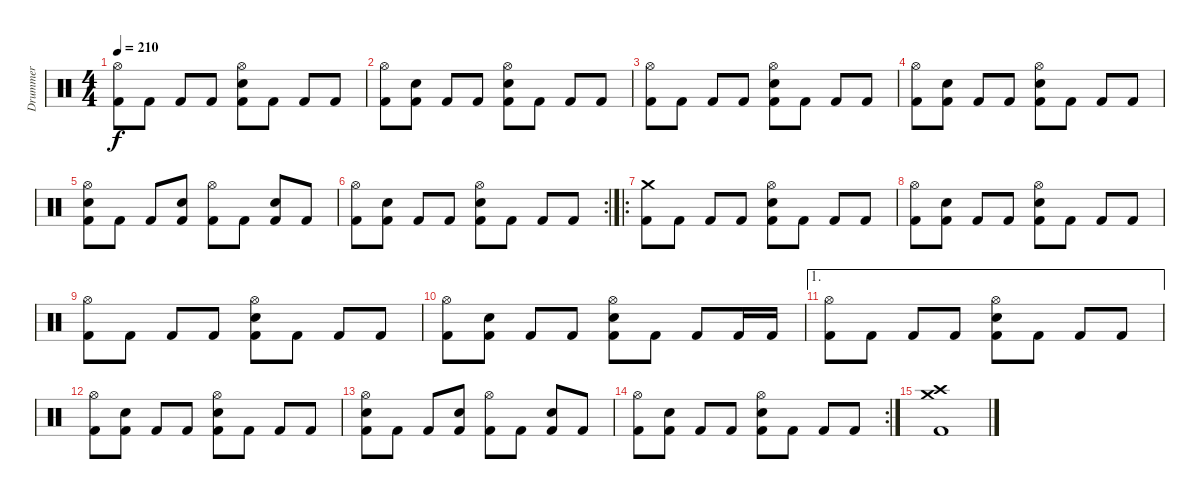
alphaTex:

\track ("Drummer" "Drummer") {instrument percussion}
\staff {score}
\articulation defaults
\ts (4 4)
\tempo 210
\clef neutral
\ks c
("Hi-Hat (open)" "Kick (hit) 2").8{dy f} "Kick (hit) 2".8 "Kick (hit) 2".8 "Kick (hit) 2".8 ("Hi-Hat (open)" "Electric Snare (hit)" "Kick (hit) 2").8 "Kick (hit) 2".8 "Kick (hit) 2".8 "Kick (hit) 2".8 |
("Hi-Hat (open)" "Kick (hit) 2").8 ("Electric Snare (hit)" "Kick (hit) 2").8 "Kick (hit) 2".8 "Kick (hit) 2".8 ("Hi-Hat (open)" "Electric Snare (hit)" "Kick (hit) 2").8 "Kick (hit) 2".8 "Kick (hit) 2".8 "Kick (hit) 2".8 |
("Hi-Hat (open)" "Kick (hit) 2").8 "Kick (hit) 2".8 "Kick (hit) 2".8 "Kick (hit) 2".8 ("Hi-Hat (open)" "Electric Snare (hit)" "Kick (hit) 2").8 "Kick (hit) 2".8 "Kick (hit) 2".8 "Kick (hit) 2".8 |
("Hi-Hat (open)" "Kick (hit) 2").8 ("Electric Snare (hit)" "Kick (hit) 2").8 "Kick (hit) 2".8 "Kick (hit) 2".8 ("Hi-Hat (open)" "Electric Snare (hit)" "Kick (hit) 2").8 "Kick (hit) 2".8 "Kick (hit) 2".8 "Kick (hit) 2".8 |
("Electric Snare (hit)" "Hi-Hat (open)" "Kick (hit) 2").8 "Kick (hit) 2".8 "Kick (hit) 2".8 ("Electric Snare (hit)" "Kick (hit) 2").8 ("Hi-Hat (open)" "Kick (hit) 2").8 "Kick (hit) 2".8 ("Electric Snare (hit)" "Kick (hit) 2").8 "Kick (hit) 2".8 |
\rc 2
("Hi-Hat (open)" "Kick (hit) 2").8 ("Electric Snare (hit)" "Kick (hit) 2").8 "Kick (hit) 2".8 "Kick (hit) 2".8 ("Hi-Hat (open)" "Electric Snare (hit)" "Kick (hit) 2").8 "Kick (hit) 2".8 "Kick (hit) 2".8 "Kick (hit) 2".8 |
\ro
("Crash medium (hit)" "Kick (hit) 2").8 "Kick (hit) 2".8 "Kick (hit) 2".8 "Kick (hit) 2".8 ("Hi-Hat (open)" "Electric Snare (hit)" "Kick (hit) 2").8 "Kick (hit) 2".8 "Kick (hit) 2".8 "Kick (hit) 2".8 |
("Hi-Hat (open)" "Kick (hit) 2").8 ("Electric Snare (hit)" "Kick (hit) 2").8 "Kick (hit) 2".8 "Kick (hit) 2".8 ("Hi-Hat (open)" "Electric Snare (hit)" "Kick (hit) 2").8 "Kick (hit) 2".8 "Kick (hit) 2".8 "Kick (hit) 2".8 |
("Hi-Hat (open)" "Kick (hit) 2").8 "Kick (hit) 2".8 "Kick (hit) 2".8 "Kick (hit) 2".8 ("Hi-Hat (open)" "Electric Snare (hit)" "Kick (hit) 2").8 "Kick (hit) 2".8 "Kick (hit) 2".8 "Kick (hit) 2".8 |
("Hi-Hat (open)" "Kick (hit) 2").8 ("Electric Snare (hit)" "Kick (hit) 2").8 "Kick (hit) 2".8 "Kick (hit) 2".8 ("Hi-Hat (open)" "Electric Snare (hit)" "Kick (hit) 2").8 "Kick (hit) 2".8 "Kick (hit) 2".8 "Kick (hit) 2".16 "Kick (hit) 2".16 |
\ae 1
("Hi-Hat (open)" "Kick (hit) 2").8 "Kick (hit) 2".8 "Kick (hit) 2".8 "Kick (hit) 2".8 ("Hi-Hat (open)" "Electric Snare (hit)" "Kick (hit) 2").8 "Kick (hit) 2".8 "Kick (hit) 2".8 "Kick (hit) 2".8 |
("Hi-Hat (open)" "Kick (hit) 2").8 ("Electric Snare (hit)" "Kick (hit) 2").8 "Kick (hit) 2".8 "Kick (hit) 2".8 ("Hi-Hat (open)" "Electric Snare (hit)" "Kick (hit) 2").8 "Kick (hit) 2".8 "Kick (hit) 2".8 "Kick (hit) 2".8 |
("Electric Snare (hit)" "Hi-Hat (open)" "Kick (hit) 2").8 "Kick (hit) 2".8 "Kick (hit) 2".8 ("Electric Snare (hit)" "Kick (hit) 2").8 ("Hi-Hat (open)" "Kick (hit) 2").8 "Kick (hit) 2".8 ("Electric Snare (hit)" "Kick (hit) 2").8 "Kick (hit) 2".8 |
\rc 2
("Hi-Hat (open)" "Kick (hit) 2").8 ("Electric Snare (hit)" "Kick (hit) 2").8 "Kick (hit) 2".8 "Kick (hit) 2".8 ("Hi-Hat (open)" "Electric Snare (hit)" "Kick (hit) 2").8 "Kick (hit) 2".8 "Kick (hit) 2".8 "Kick (hit) 2".8 |
("Crash high (hit)" "Crash medium (hit)" "Kick (hit) 2").1
